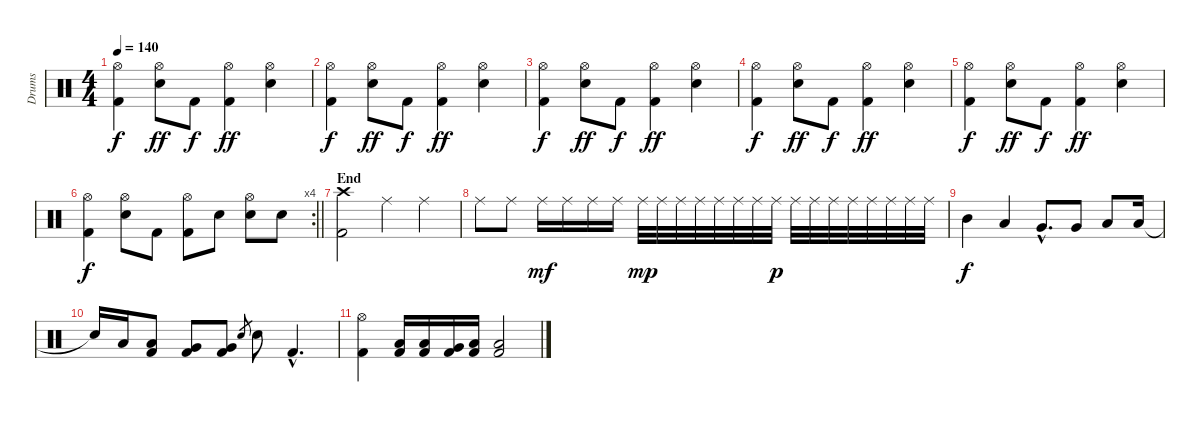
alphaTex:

\track ("Drums" "Drums") {instrument percussion}
\staff {score}
\articulation defaults
\ts (4 4)
\tempo 140
\clef neutral
\ks c
("Hi-Hat (open)" "Kick (hit) 2").4{dy f} ("Hi-Hat (open)" "Snare (hit) 2").8{dy ff} "Kick (hit) 2".8{dy f} ("Hi-Hat (open)" "Kick (hit) 2").4{dy ff} ("Hi-Hat (open)" "Snare (hit) 2").4 |
("Hi-Hat (open)" "Kick (hit) 2").4{dy f} ("Hi-Hat (open)" "Snare (hit) 2").8{dy ff} "Kick (hit) 2".8{dy f} ("Hi-Hat (open)" "Kick (hit) 2").4{dy ff} ("Hi-Hat (open)" "Snare (hit) 2").4 |
("Hi-Hat (open)" "Kick (hit) 2").4{dy f} ("Hi-Hat (open)" "Snare (hit) 2").8{dy ff} "Kick (hit) 2".8{dy f} ("Hi-Hat (open)" "Kick (hit) 2").4{dy ff} ("Hi-Hat (open)" "Snare (hit) 2").4 |
("Hi-Hat (open)" "Kick (hit) 2").4{dy f} ("Hi-Hat (open)" "Snare (hit) 2").8{dy ff} "Kick (hit) 2".8{dy f} ("Hi-Hat (open)" "Kick (hit) 2").4{dy ff} ("Hi-Hat (open)" "Snare (hit) 2").4 |
("Hi-Hat (open)" "Kick (hit) 2").4{dy f} ("Hi-Hat (open)" "Snare (hit) 2").8{dy ff} "Kick (hit) 2".8{dy f} ("Hi-Hat (open)" "Kick (hit) 2").4{dy ff} ("Hi-Hat (open)" "Snare (hit) 2").4 |
\rc 4
\barLineRight lightlight
("Hi-Hat (open)" "Kick (hit) 2").4{dy f} ("Hi-Hat (open)" "Snare (hit) 2").8 "Kick (hit) 2".8 ("Hi-Hat (open)" "Kick (hit) 2").8 "Snare (hit) 2".8 ("Hi-Hat (open)" "Snare (hit) 2").8 "Snare (hit) 2".8 |
\section ("" "End")
("Crash high (hit)" "Kick (hit) 2").2 "Ride (middle)".4 "Ride (middle)".4 |
"Ride (middle)".8 "Ride (middle)".8 "Ride (middle)".16{dy mf} "Ride (middle)".16 "Ride (middle)".16 "Ride (middle)".16 "Ride (middle)".32{dy mp} "Ride (middle)".32 "Ride (middle)".32 "Ride (middle)".32 "Ride (middle)".32 "Ride (middle)".32 "Ride (middle)".32 "Ride (middle)".32{dy p} "Ride (middle)".32 "Ride (middle)".32 "Ride (middle)".32 "Ride (middle)".32 "Ride (middle)".32 "Ride (middle)".32 "Ride (middle)".32 "Ride (middle)".32 |
"Mid Tom (hit)".4{dy f} "Low Tom (hit)".4 "Very Low Tom (hit)"{hac}.8{d} "Very Low Tom (hit)".8 "Low Floor Tom (hit)".8 "Low Floor Tom (hit)".16 |
"Snare (hit)"{t}.16 "Low Floor Tom (hit)".16 ("Low Floor Tom (hit)" "Kick (hit) 2").8 ("Very Low Tom (hit)" "Kick (hit) 2").8 ("Very Low Tom (hit)" "Kick (hit) 2").8 "Snare (hit) 2".8{gr} "Snare (hit) 2".8 "Kick (hit) 2"{hac}.4{d} |
("Hi-Hat (open)" "Kick (hit) 2").4 ("Low Floor Tom (hit)" "Kick (hit) 2").16 ("Low Floor Tom (hit)" "Kick (hit) 2").16 ("Very Low Tom (hit)" "Kick (hit) 2").16 ("Low Floor Tom (hit)" "Kick (hit) 2").16 ("Low Floor Tom (hit)" "Kick (hit) 2").2
